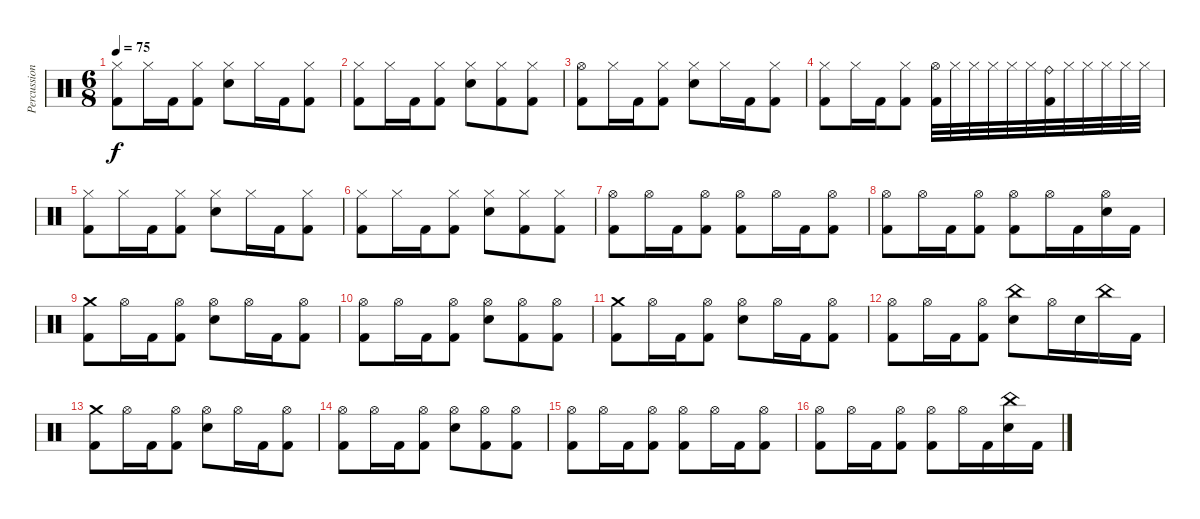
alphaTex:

\track ("Percussions" "Percussion") {instrument percussion}
\staff {score}
\articulation defaults
\ts (6 8)
\tempo 75
\clef neutral
\ks c
("Hi-Hat (closed)" "Kick (hit) 2").8{dy f} "Hi-Hat (closed)".16 "Kick (hit) 2".16 ("Hi-Hat (closed)" "Kick (hit) 2").8 ("Hi-Hat (closed)" "Electric Snare (hit)").8 "Hi-Hat (closed)".16 "Kick (hit) 2".16 ("Hi-Hat (closed)" "Kick (hit) 2").8 |
("Hi-Hat (closed)" "Kick (hit) 2").8 "Hi-Hat (closed)".16 "Kick (hit) 2".16 ("Hi-Hat (closed)" "Kick (hit) 2").8 ("Hi-Hat (closed)" "Electric Snare (hit)").8 ("Hi-Hat (closed)" "Kick (hit) 2").8 ("Hi-Hat (closed)" "Kick (hit) 2").8 |
("Hi-Hat (open)" "Kick (hit) 2").8 "Hi-Hat (closed)".16 "Kick (hit) 2".16 ("Hi-Hat (closed)" "Kick (hit) 2").8 ("Hi-Hat (closed)" "Electric Snare (hit)").8 "Hi-Hat (closed)".16 "Kick (hit) 2".16 ("Hi-Hat (closed)" "Kick (hit) 2").8 |
("Hi-Hat (closed)" "Kick (hit) 2").8 "Hi-Hat (closed)".16 "Kick (hit) 2".16 ("Hi-Hat (closed)" "Kick (hit) 2").8 ("Hi-Hat (open)" "Kick (hit) 2").32 "Hi-Hat (closed)".32 "Hi-Hat (closed)".32 "Hi-Hat (closed)".32 "Hi-Hat (closed)".32 "Hi-Hat (closed)".32 ("Ride (bell)" "Kick (hit) 2").32 "Hi-Hat (closed)".32 "Hi-Hat (closed)".32 "Hi-Hat (closed)".32 "Hi-Hat (closed)".32 "Hi-Hat (closed)".32 |
("Hi-Hat (closed)" "Kick (hit) 2").8 "Hi-Hat (closed)".16 "Kick (hit) 2".16 ("Hi-Hat (closed)" "Kick (hit) 2").8 ("Hi-Hat (closed)" "Electric Snare (hit)").8 "Hi-Hat (closed)".16 "Kick (hit) 2".16 ("Hi-Hat (closed)" "Kick (hit) 2").8 |
("Hi-Hat (closed)" "Kick (hit) 2").8 "Hi-Hat (closed)".16 "Kick (hit) 2".16 ("Hi-Hat (closed)" "Kick (hit) 2").8 ("Hi-Hat (closed)" "Electric Snare (hit)").8 ("Hi-Hat (closed)" "Kick (hit) 2").8 ("Hi-Hat (closed)" "Kick (hit) 2").8 |
("Hi-Hat (open)" "Kick (hit) 2").8 "Hi-Hat (open)".16 "Kick (hit) 2".16 ("Hi-Hat (open)" "Kick (hit) 2").8 ("Hi-Hat (open)" "Kick (hit) 2").8 "Hi-Hat (open)".16 "Kick (hit) 2".16 ("Hi-Hat (open)" "Kick (hit) 2").8 |
("Hi-Hat (open)" "Kick (hit) 2").8 "Hi-Hat (open)".16 "Kick (hit) 2".16 ("Hi-Hat (open)" "Kick (hit) 2").8 ("Hi-Hat (open)" "Kick (hit) 2").8 "Hi-Hat (open)".16 "Kick (hit) 2".16 ("Hi-Hat (open)" "Electric Snare (hit)").16 "Kick (hit) 2".16 |
("Crash medium (hit)" "Kick (hit) 2").8 "Hi-Hat (open)".16 "Kick (hit) 2".16 ("Hi-Hat (open)" "Kick (hit) 2").8 ("Hi-Hat (open)" "Electric Snare (hit)").8 "Hi-Hat (open)".16 "Kick (hit) 2".16 ("Hi-Hat (open)" "Kick (hit) 2").8 |
("Hi-Hat (open)" "Kick (hit) 2").8 "Hi-Hat (open)".16 "Kick (hit) 2".16 ("Hi-Hat (open)" "Kick (hit) 2").8 ("Hi-Hat (open)" "Electric Snare (hit)").8 ("Hi-Hat (open)" "Kick (hit) 2").8 ("Hi-Hat (open)" "Kick (hit) 2").8 |
("Crash medium (hit)" "Kick (hit) 2").8 "Hi-Hat (open)".16 "Kick (hit) 2".16 ("Hi-Hat (open)" "Kick (hit) 2").8 ("Hi-Hat (open)" "Electric Snare (hit)").8 "Hi-Hat (open)".16 "Kick (hit) 2".16 ("Hi-Hat (open)" "Kick (hit) 2").8 |
("Hi-Hat (open)" "Kick (hit) 2").8 "Hi-Hat (open)".16 "Kick (hit) 2".16 ("Hi-Hat (open)" "Kick (hit) 2").8 ("China (hit)" "Electric Snare (hit)").8 "Hi-Hat (open)".16 "Electric Snare (hit)".16 "China (hit)".16 "Kick (hit) 2".16 |
("Crash medium (hit)" "Kick (hit) 2").8 "Hi-Hat (open)".16 "Kick (hit) 2".16 ("Hi-Hat (open)" "Kick (hit) 2").8 ("Hi-Hat (open)" "Electric Snare (hit)").8 "Hi-Hat (open)".16 "Kick (hit) 2".16 ("Hi-Hat (open)" "Kick (hit) 2").8 |
("Hi-Hat (open)" "Kick (hit) 2").8 "Hi-Hat (open)".16 "Kick (hit) 2".16 ("Hi-Hat (open)" "Kick (hit) 2").8 ("Hi-Hat (open)" "Electric Snare (hit)").8 ("Hi-Hat (open)" "Kick (hit) 2").8 ("Hi-Hat (open)" "Kick (hit) 2").8 |
("Hi-Hat (open)" "Kick (hit) 2").8 "Hi-Hat (open)".16 "Kick (hit) 2".16 ("Hi-Hat (open)" "Kick (hit) 2").8 ("Hi-Hat (open)" "Kick (hit) 2").8 "Hi-Hat (open)".16 "Kick (hit) 2".16 ("Hi-Hat (open)" "Kick (hit) 2").8 |
("Hi-Hat (open)" "Kick (hit) 2").8 "Hi-Hat (open)".16 "Kick (hit) 2".16 ("Hi-Hat (open)" "Kick (hit) 2").8 ("Hi-Hat (open)" "Kick (hit) 2").8 "Hi-Hat (open)".16 "Kick (hit) 2".16 ("China (hit)" "Electric Snare (hit)").16 "Kick (hit) 2".16
